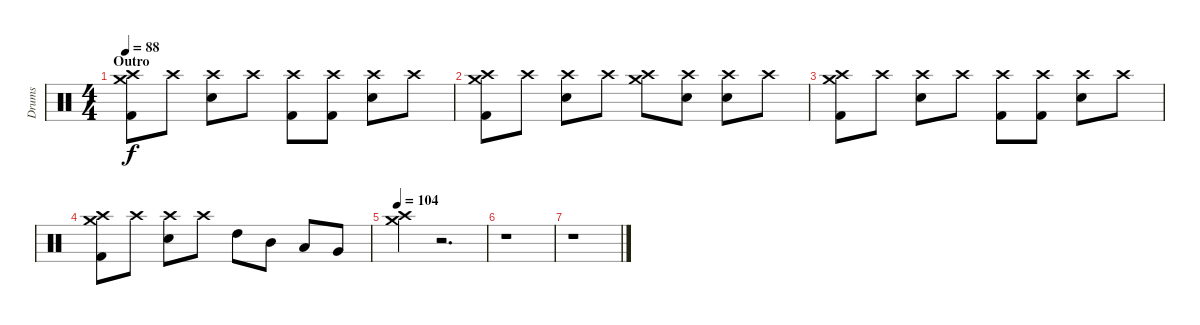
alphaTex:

\track ("Drums" "Drums") {instrument percussion}
\staff {score}
\articulation defaults
\ts (4 4)
\section ("" "Outro")
\tempo 88
\clef neutral
\ks c
("Crash high (hit)" "Crash medium (hit)" "Kick (hit) 2").8{dy f} "Crash high (hit)".8 ("Crash high (hit)" "Electric Snare (hit)").8 "Crash high (hit)".8 ("Crash high (hit)" "Kick (hit) 2").8 ("Crash high (hit)" "Kick (hit) 2").8 ("Crash high (hit)" "Electric Snare (hit)").8 "Crash high (hit)".8 |
("Crash high (hit)" "Crash medium (hit)" "Kick (hit) 2").8 "Crash high (hit)".8 ("Crash high (hit)" "Electric Snare (hit)").8 "Crash high (hit)".8 ("Crash high (hit)" "Crash medium (hit)").8 ("Crash high (hit)" "Electric Snare (hit)").8 ("Crash high (hit)" "Electric Snare (hit)").8 "Crash high (hit)".8 |
("Crash high (hit)" "Crash medium (hit)" "Kick (hit) 2").8 "Crash high (hit)".8 ("Crash high (hit)" "Electric Snare (hit)").8 "Crash high (hit)".8 ("Crash high (hit)" "Kick (hit) 2").8 ("Crash high (hit)" "Kick (hit) 2").8 ("Crash high (hit)" "Electric Snare (hit)").8 "Crash high (hit)".8 |
("Crash high (hit)" "Crash medium (hit)" "Kick (hit) 2").8 "Crash high (hit)".8 ("Crash high (hit)" "Electric Snare (hit)").8 "Crash high (hit)".8 "High Tom (hit)".8 "Mid Tom (hit)".8 "Low Tom (hit)".8 "Very Low Tom (hit)".8 |
\tempo 104
("Crash high (hit)" "Crash medium (hit)").4 r.2{d} |
r.1 |
r.1
